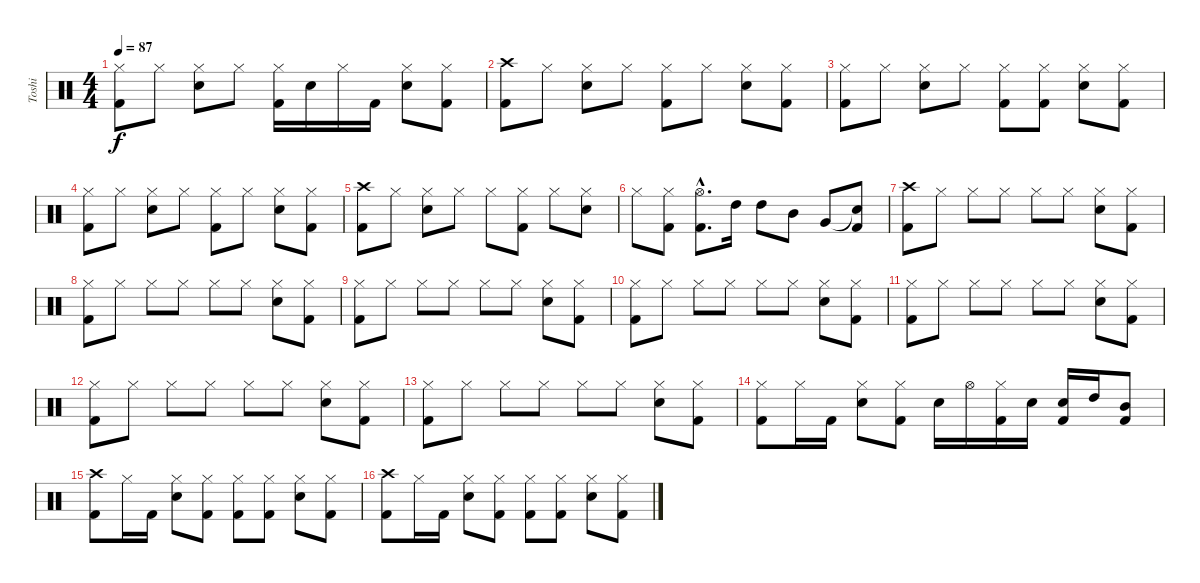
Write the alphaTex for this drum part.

\track ("Toshi" "Toshi") {instrument percussion}
\staff {score}
\articulation defaults
\ts (4 4)
\tempo 87
\clef neutral
\ks c
("Hi-Hat (closed)" "Kick (hit) 2").8{dy f} "Hi-Hat (closed)".8 ("Hi-Hat (closed)" "Snare (hit) 2").8 "Hi-Hat (closed)".8 ("Hi-Hat (closed)" "Kick (hit) 2").16 "Snare (hit) 2".16 "Hi-Hat (closed)".16 "Kick (hit) 2".16 ("Hi-Hat (closed)" "Snare (hit) 2").8 ("Hi-Hat (closed)" "Kick (hit) 2").8 |
("Crash high (hit)" "Kick (hit) 2").8 "Hi-Hat (closed)".8 ("Hi-Hat (closed)" "Snare (hit) 2").8 "Hi-Hat (closed)".8 ("Hi-Hat (closed)" "Kick (hit) 2").8 "Hi-Hat (closed)".8 ("Hi-Hat (closed)" "Snare (hit) 2").8 ("Hi-Hat (closed)" "Kick (hit) 2").8 |
("Hi-Hat (closed)" "Kick (hit) 2").8 "Hi-Hat (closed)".8 ("Hi-Hat (closed)" "Snare (hit) 2").8 "Hi-Hat (closed)".8 ("Hi-Hat (closed)" "Kick (hit) 2").8 ("Hi-Hat (closed)" "Kick (hit) 2").8 ("Hi-Hat (closed)" "Snare (hit) 2").8 ("Hi-Hat (closed)" "Kick (hit) 2").8 |
("Hi-Hat (closed)" "Kick (hit) 2").8 "Hi-Hat (closed)".8 ("Hi-Hat (closed)" "Snare (hit) 2").8 "Hi-Hat (closed)".8 ("Hi-Hat (closed)" "Kick (hit) 2").8 "Hi-Hat (closed)".8 ("Hi-Hat (closed)" "Snare (hit) 2").8 ("Hi-Hat (closed)" "Kick (hit) 2").8 |
("Crash high (hit)" "Kick (hit) 2").8 "Hi-Hat (closed)".8 ("Hi-Hat (closed)" "Snare (hit) 2").8 "Hi-Hat (closed)".8 "Hi-Hat (closed)".8 ("Hi-Hat (closed)" "Kick (hit) 2").8 "Hi-Hat (closed)".8 ("Hi-Hat (closed)" "Snare (hit) 2").8 |
"Hi-Hat (closed)".8 ("Hi-Hat (closed)" "Kick (hit) 2").8 ("Hi-Hat (open)"{hac} "Kick (hit) 2"{hac}).8{d} "High Tom (hit)".16 "High Tom (hit)".8 "Mid Tom (hit)".8 "Very Low Tom (hit)".8 ("Snare (hit)"{t} "Kick (hit) 2").8 |
("Crash high (hit)" "Kick (hit) 2").8 "Hi-Hat (closed)".8 "Hi-Hat (closed)".8 "Hi-Hat (closed)".8 "Hi-Hat (closed)".8 "Hi-Hat (closed)".8 ("Hi-Hat (closed)" "Snare (hit) 2").8 ("Hi-Hat (closed)" "Kick (hit) 2").8 |
("Hi-Hat (closed)" "Kick (hit) 2").8 "Hi-Hat (closed)".8 "Hi-Hat (closed)".8 "Hi-Hat (closed)".8 "Hi-Hat (closed)".8 "Hi-Hat (closed)".8 ("Hi-Hat (closed)" "Snare (hit) 2").8 ("Hi-Hat (closed)" "Kick (hit) 2").8 |
("Hi-Hat (closed)" "Kick (hit) 2").8 "Hi-Hat (closed)".8 "Hi-Hat (closed)".8 "Hi-Hat (closed)".8 "Hi-Hat (closed)".8 "Hi-Hat (closed)".8 ("Hi-Hat (closed)" "Snare (hit) 2").8 ("Hi-Hat (closed)" "Kick (hit) 2").8 |
("Hi-Hat (closed)" "Kick (hit) 2").8 "Hi-Hat (closed)".8 "Hi-Hat (closed)".8 "Hi-Hat (closed)".8 "Hi-Hat (closed)".8 "Hi-Hat (closed)".8 ("Hi-Hat (closed)" "Snare (hit) 2").8 ("Hi-Hat (closed)" "Kick (hit) 2").8 |
("Hi-Hat (closed)" "Kick (hit) 2").8 "Hi-Hat (closed)".8 "Hi-Hat (closed)".8 "Hi-Hat (closed)".8 "Hi-Hat (closed)".8 "Hi-Hat (closed)".8 ("Hi-Hat (closed)" "Snare (hit) 2").8 ("Hi-Hat (closed)" "Kick (hit) 2").8 |
("Hi-Hat (closed)" "Kick (hit) 2").8 "Hi-Hat (closed)".8 "Hi-Hat (closed)".8 "Hi-Hat (closed)".8 "Hi-Hat (closed)".8 "Hi-Hat (closed)".8 ("Hi-Hat (closed)" "Snare (hit) 2").8 ("Hi-Hat (closed)" "Kick (hit) 2").8 |
("Hi-Hat (closed)" "Kick (hit) 2").8 "Hi-Hat (closed)".8 "Hi-Hat (closed)".8 "Hi-Hat (closed)".8 "Hi-Hat (closed)".8 "Hi-Hat (closed)".8 ("Hi-Hat (closed)" "Snare (hit) 2").8 ("Hi-Hat (closed)" "Kick (hit) 2").8 |
("Hi-Hat (closed)" "Kick (hit) 2").8 "Hi-Hat (closed)".16 "Kick (hit) 2".16 ("Hi-Hat (closed)" "Snare (hit) 2").8 ("Hi-Hat (closed)" "Kick (hit) 2").8 "Snare (hit) 2".16 "Hi-Hat (open)".16 ("Hi-Hat (closed)" "Kick (hit) 2").16 "Snare (hit) 2".16 ("Snare (hit) 2" "Kick (hit) 2").16 "High Tom (hit)".16 ("Mid Tom (hit)" "Kick (hit) 2").8 |
("Crash high (hit)" "Kick (hit) 2").8 "Hi-Hat (closed)".16 "Kick (hit) 2".16 ("Hi-Hat (closed)" "Snare (hit) 2").8 ("Hi-Hat (closed)" "Kick (hit) 2").8 ("Hi-Hat (closed)" "Kick (hit) 2").8 ("Hi-Hat (closed)" "Kick (hit) 2").8 ("Hi-Hat (closed)" "Snare (hit) 2").8 ("Hi-Hat (closed)" "Kick (hit) 2").8 |
("Crash high (hit)" "Kick (hit) 2").8 "Hi-Hat (closed)".16 "Kick (hit) 2".16 ("Hi-Hat (closed)" "Snare (hit) 2").8 ("Hi-Hat (closed)" "Kick (hit) 2").8 ("Hi-Hat (closed)" "Kick (hit) 2").8 ("Hi-Hat (closed)" "Kick (hit) 2").8 ("Hi-Hat (closed)" "Snare (hit) 2").8 ("Hi-Hat (closed)" "Kick (hit) 2").8
